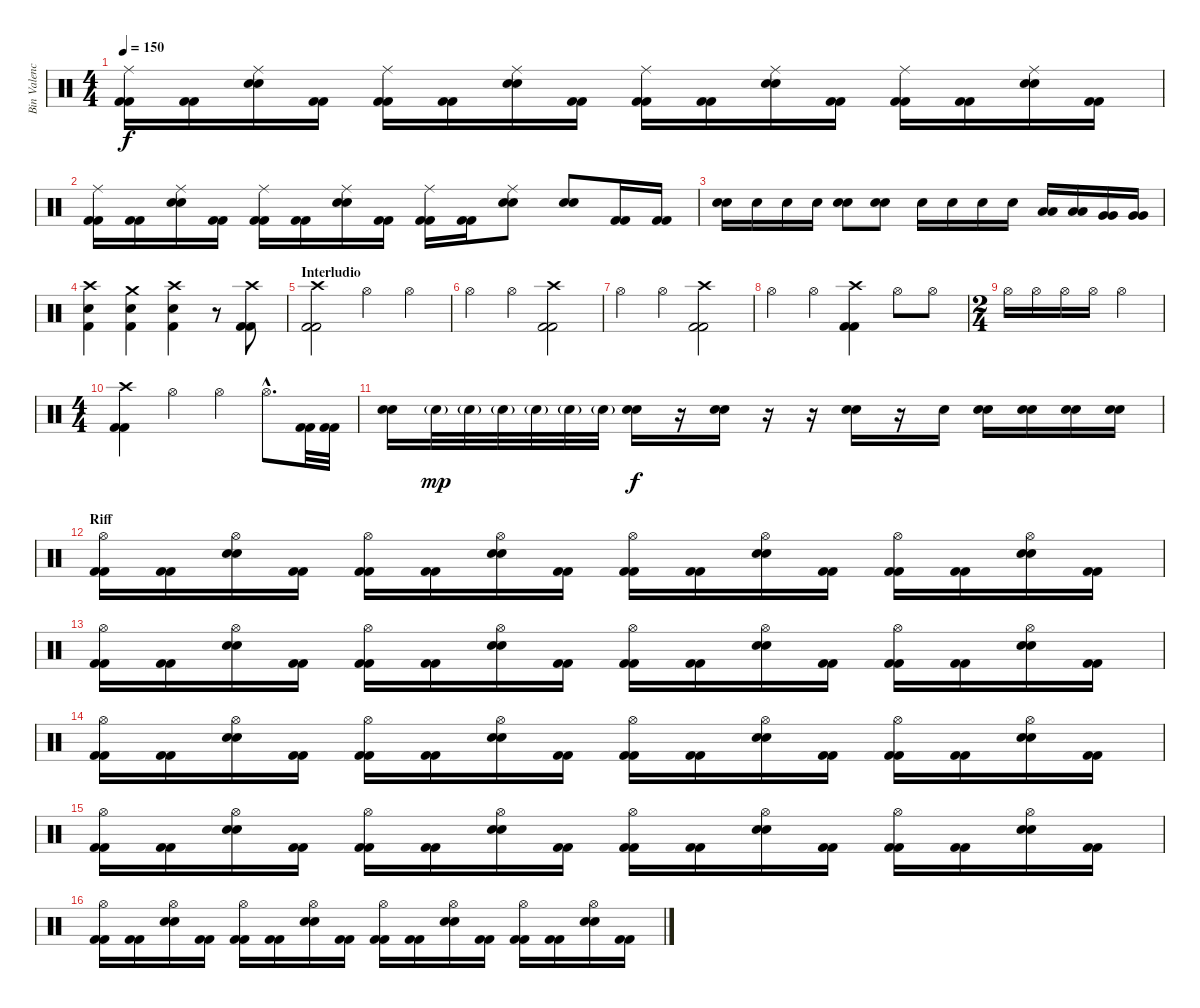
\track ("Bin Valencia (bateria)" "Bin Valenc") {instrument percussion}
\staff {score}
\articulation defaults
\ts (4 4)
\tempo 150
\clef neutral
\ks c
("Ride (middle)" "Kick (hit) 2" "Kick (hit) 2").16{dy f} ("Kick (hit) 2" "Kick (hit) 2").16 ("Ride (middle)" "Snare (hit) 2" "Snare (hit) 2").16 ("Kick (hit) 2" "Kick (hit) 2").16 ("Ride (middle)" "Kick (hit) 2" "Kick (hit) 2").16 ("Kick (hit) 2" "Kick (hit) 2").16 ("Ride (middle)" "Snare (hit) 2" "Snare (hit) 2").16 ("Kick (hit) 2" "Kick (hit) 2").16 ("Ride (middle)" "Kick (hit) 2" "Kick (hit) 2").16 ("Kick (hit) 2" "Kick (hit) 2").16 ("Ride (middle)" "Snare (hit) 2" "Snare (hit) 2").16 ("Kick (hit) 2" "Kick (hit) 2").16 ("Ride (middle)" "Kick (hit) 2" "Kick (hit) 2").16 ("Kick (hit) 2" "Kick (hit) 2").16 ("Ride (middle)" "Snare (hit) 2" "Snare (hit) 2").16 ("Kick (hit) 2" "Kick (hit) 2").16 |
("Ride (middle)" "Kick (hit) 2" "Kick (hit) 2").16 ("Kick (hit) 2" "Kick (hit) 2").16 ("Ride (middle)" "Snare (hit) 2" "Snare (hit) 2").16 ("Kick (hit) 2" "Kick (hit) 2").16 ("Ride (middle)" "Kick (hit) 2" "Kick (hit) 2").16 ("Kick (hit) 2" "Kick (hit) 2").16 ("Ride (middle)" "Snare (hit) 2" "Snare (hit) 2").16 ("Kick (hit) 2" "Kick (hit) 2").16 ("Ride (middle)" "Kick (hit) 2" "Kick (hit) 2").16 ("Kick (hit) 2" "Kick (hit) 2").16 ("Ride (middle)" "Snare (hit) 2" "Snare (hit) 2").8 ("Snare (hit) 2" "Snare (hit) 2").8 ("Kick (hit) 2" "Kick (hit) 2").16 ("Kick (hit) 2" "Kick (hit) 2").16 |
("Snare (hit) 2" "Snare (hit) 2").16 "Snare (hit) 2".16 "Snare (hit) 2".16 "Snare (hit) 2".16 ("Snare (hit) 2" "Snare (hit) 2").8 ("Snare (hit) 2" "Snare (hit) 2").8 "Snare (hit) 2".16 "Snare (hit) 2".16 "Snare (hit) 2".16 "Snare (hit) 2".16 ("Low Tom (hit)" "Low Tom (hit)").16 ("Low Tom (hit)" "Low Tom (hit)").16 ("Very Low Tom (hit)" "Very Low Tom (hit)").16 ("Very Low Tom (hit)" "Very Low Tom (hit)").16 |
("Crash high (hit)" "Snare (hit) 2" "Kick (hit) 2").4 ("Crash medium (hit)" "Snare (hit) 2" "Kick (hit) 2").4 ("Crash high (hit)" "Snare (hit) 2" "Kick (hit) 2").4 r.8 ("Crash high (hit)" "Kick (hit) 2" "Kick (hit) 2").8 |
\section ("" "Interludio")
("Crash high (hit)" "Kick (hit) 2" "Kick (hit) 2").2 "Hi-Hat (open)".4 "Hi-Hat (open)".4 |
"Hi-Hat (open)".4 "Hi-Hat (open)".4 ("Crash high (hit)" "Kick (hit) 2" "Kick (hit) 2").2 |
"Hi-Hat (open)".4 "Hi-Hat (open)".4 ("Crash high (hit)" "Kick (hit) 2" "Kick (hit) 2").2 |
"Hi-Hat (open)".4 "Hi-Hat (open)".4 ("Crash high (hit)" "Kick (hit) 2" "Kick (hit) 2").4 "Hi-Hat (open)".8 "Hi-Hat (open)".8 |
\ts (2 4)
"Hi-Hat (open)".16 "Hi-Hat (open)".16 "Hi-Hat (open)".16 "Hi-Hat (open)".16 "Hi-Hat (open)".4 |
\ts (4 4)
("Crash high (hit)" "Kick (hit) 2" "Kick (hit) 2").4 "Hi-Hat (open)".4 "Hi-Hat (open)".4 "Hi-Hat (open)"{hac}.8{d} ("Kick (hit) 2" "Kick (hit) 2").32 ("Kick (hit) 2" "Kick (hit) 2").32 |
("Snare (hit) 2" "Snare (hit) 2").16 "Snare (hit) 2"{g}.32{dy mp} "Snare (hit) 2"{g}.32 "Snare (hit) 2"{g}.32 "Snare (hit) 2"{g}.32 "Snare (hit) 2"{g}.32 "Snare (hit) 2"{g}.32 ("Snare (hit) 2" "Snare (hit) 2").16{dy f} r.16 ("Snare (hit) 2" "Snare (hit) 2").16 r.16 r.16 ("Snare (hit) 2" "Snare (hit) 2").16 r.16 "Snare (hit) 2".16 ("Snare (hit) 2" "Snare (hit) 2").16 ("Snare (hit) 2" "Snare (hit) 2").16 ("Snare (hit) 2" "Snare (hit) 2").16 ("Snare (hit) 2" "Snare (hit) 2").16 |
\section ("" "Riff ")
("Hi-Hat (open)" "Kick (hit) 2" "Kick (hit) 2").16 ("Kick (hit) 2" "Kick (hit) 2").16 ("Hi-Hat (open)" "Snare (hit) 2" "Snare (hit) 2").16 ("Kick (hit) 2" "Kick (hit) 2").16 ("Hi-Hat (open)" "Kick (hit) 2" "Kick (hit) 2").16 ("Kick (hit) 2" "Kick (hit) 2").16 ("Hi-Hat (open)" "Snare (hit) 2" "Snare (hit) 2").16 ("Kick (hit) 2" "Kick (hit) 2").16 ("Hi-Hat (open)" "Kick (hit) 2" "Kick (hit) 2").16 ("Kick (hit) 2" "Kick (hit) 2").16 ("Hi-Hat (open)" "Snare (hit) 2" "Snare (hit) 2").16 ("Kick (hit) 2" "Kick (hit) 2").16 ("Hi-Hat (open)" "Kick (hit) 2" "Kick (hit) 2").16 ("Kick (hit) 2" "Kick (hit) 2").16 ("Hi-Hat (open)" "Snare (hit) 2" "Snare (hit) 2").16 ("Kick (hit) 2" "Kick (hit) 2").16 |
("Hi-Hat (open)" "Kick (hit) 2" "Kick (hit) 2").16 ("Kick (hit) 2" "Kick (hit) 2").16 ("Hi-Hat (open)" "Snare (hit) 2" "Snare (hit) 2").16 ("Kick (hit) 2" "Kick (hit) 2").16 ("Hi-Hat (open)" "Kick (hit) 2" "Kick (hit) 2").16 ("Kick (hit) 2" "Kick (hit) 2").16 ("Hi-Hat (open)" "Snare (hit) 2" "Snare (hit) 2").16 ("Kick (hit) 2" "Kick (hit) 2").16 ("Hi-Hat (open)" "Kick (hit) 2" "Kick (hit) 2").16 ("Kick (hit) 2" "Kick (hit) 2").16 ("Hi-Hat (open)" "Snare (hit) 2" "Snare (hit) 2").16 ("Kick (hit) 2" "Kick (hit) 2").16 ("Hi-Hat (open)" "Kick (hit) 2" "Kick (hit) 2").16 ("Kick (hit) 2" "Kick (hit) 2").16 ("Hi-Hat (open)" "Snare (hit) 2" "Snare (hit) 2").16 ("Kick (hit) 2" "Kick (hit) 2").16 |
("Hi-Hat (open)" "Kick (hit) 2" "Kick (hit) 2").16 ("Kick (hit) 2" "Kick (hit) 2").16 ("Hi-Hat (open)" "Snare (hit) 2" "Snare (hit) 2").16 ("Kick (hit) 2" "Kick (hit) 2").16 ("Hi-Hat (open)" "Kick (hit) 2" "Kick (hit) 2").16 ("Kick (hit) 2" "Kick (hit) 2").16 ("Hi-Hat (open)" "Snare (hit) 2" "Snare (hit) 2").16 ("Kick (hit) 2" "Kick (hit) 2").16 ("Hi-Hat (open)" "Kick (hit) 2" "Kick (hit) 2").16 ("Kick (hit) 2" "Kick (hit) 2").16 ("Hi-Hat (open)" "Snare (hit) 2" "Snare (hit) 2").16 ("Kick (hit) 2" "Kick (hit) 2").16 ("Hi-Hat (open)" "Kick (hit) 2" "Kick (hit) 2").16 ("Kick (hit) 2" "Kick (hit) 2").16 ("Hi-Hat (open)" "Snare (hit) 2" "Snare (hit) 2").16 ("Kick (hit) 2" "Kick (hit) 2").16 |
("Hi-Hat (open)" "Kick (hit) 2" "Kick (hit) 2").16 ("Kick (hit) 2" "Kick (hit) 2").16 ("Hi-Hat (open)" "Snare (hit) 2" "Snare (hit) 2").16 ("Kick (hit) 2" "Kick (hit) 2").16 ("Hi-Hat (open)" "Kick (hit) 2" "Kick (hit) 2").16 ("Kick (hit) 2" "Kick (hit) 2").16 ("Hi-Hat (open)" "Snare (hit) 2" "Snare (hit) 2").16 ("Kick (hit) 2" "Kick (hit) 2").16 ("Hi-Hat (open)" "Kick (hit) 2" "Kick (hit) 2").16 ("Kick (hit) 2" "Kick (hit) 2").16 ("Hi-Hat (open)" "Snare (hit) 2" "Snare (hit) 2").16 ("Kick (hit) 2" "Kick (hit) 2").16 ("Hi-Hat (open)" "Kick (hit) 2" "Kick (hit) 2").16 ("Kick (hit) 2" "Kick (hit) 2").16 ("Hi-Hat (open)" "Snare (hit) 2" "Snare (hit) 2").16 ("Kick (hit) 2" "Kick (hit) 2").16 |
("Hi-Hat (open)" "Kick (hit) 2" "Kick (hit) 2").16 ("Kick (hit) 2" "Kick (hit) 2").16 ("Hi-Hat (open)" "Snare (hit) 2" "Snare (hit) 2").16 ("Kick (hit) 2" "Kick (hit) 2").16 ("Hi-Hat (open)" "Kick (hit) 2" "Kick (hit) 2").16 ("Kick (hit) 2" "Kick (hit) 2").16 ("Hi-Hat (open)" "Snare (hit) 2" "Snare (hit) 2").16 ("Kick (hit) 2" "Kick (hit) 2").16 ("Hi-Hat (open)" "Kick (hit) 2" "Kick (hit) 2").16 ("Kick (hit) 2" "Kick (hit) 2").16 ("Hi-Hat (open)" "Snare (hit) 2" "Snare (hit) 2").16 ("Kick (hit) 2" "Kick (hit) 2").16 ("Hi-Hat (open)" "Kick (hit) 2" "Kick (hit) 2").16 ("Kick (hit) 2" "Kick (hit) 2").16 ("Hi-Hat (open)" "Snare (hit) 2" "Snare (hit) 2").16 ("Kick (hit) 2" "Kick (hit) 2").16
